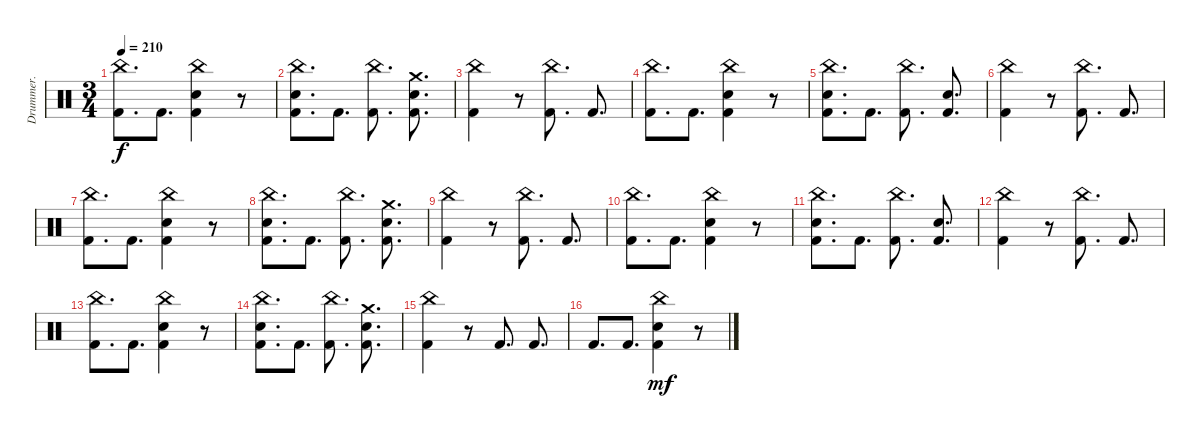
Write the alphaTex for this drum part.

\track ("Drummer." "Drummer.") {instrument percussion}
\staff {score}
\articulation defaults
\ts (3 4)
\tempo 210
\clef neutral
\ks c
("China (hit)" "Kick (hit) 2").8{d dy f} "Kick (hit) 2".8{d} ("China (hit)" "Snare (hit) 2" "Kick (hit) 2").4 r.8 |
("Snare (hit)" "China (hit)" "Kick (hit) 2").8{d} "Kick (hit) 2".8{d} ("China (hit)" "Kick (hit) 2").8{d} ("Crash medium (hit)" "Snare (hit) 2" "Kick (hit) 2").8{d} |
("China (hit)" "Kick (hit) 2").4 r.8 ("China (hit)" "Kick (hit) 2").8{d} "Kick (hit) 2".8{d} |
("China (hit)" "Kick (hit) 2").8{d} "Kick (hit) 2".8{d} ("China (hit)" "Snare (hit) 2" "Kick (hit) 2").4 r.8 |
("Snare (hit)" "China (hit)" "Kick (hit) 2").8{d} "Kick (hit) 2".8{d} ("China (hit)" "Kick (hit) 2").8{d} ("Snare (hit) 2" "Kick (hit) 2").8{d} |
("China (hit)" "Kick (hit) 2").4 r.8 ("China (hit)" "Kick (hit) 2").8{d} "Kick (hit) 2".8{d} |
("China (hit)" "Kick (hit) 2").8{d} "Kick (hit) 2".8{d} ("China (hit)" "Snare (hit) 2" "Kick (hit) 2").4 r.8 |
("Snare (hit)" "China (hit)" "Kick (hit) 2").8{d} "Kick (hit) 2".8{d} ("China (hit)" "Kick (hit) 2").8{d} ("Crash medium (hit)" "Snare (hit) 2" "Kick (hit) 2").8{d} |
("China (hit)" "Kick (hit) 2").4 r.8 ("China (hit)" "Kick (hit) 2").8{d} "Kick (hit) 2".8{d} |
("China (hit)" "Kick (hit) 2").8{d} "Kick (hit) 2".8{d} ("China (hit)" "Snare (hit) 2" "Kick (hit) 2").4 r.8 |
("Snare (hit)" "China (hit)" "Kick (hit) 2").8{d} "Kick (hit) 2".8{d} ("China (hit)" "Kick (hit) 2").8{d} ("Snare (hit) 2" "Kick (hit) 2").8{d} |
("China (hit)" "Kick (hit) 2").4 r.8 ("China (hit)" "Kick (hit) 2").8{d} "Kick (hit) 2".8{d} |
("China (hit)" "Kick (hit) 2").8{d} "Kick (hit) 2".8{d} ("China (hit)" "Snare (hit) 2" "Kick (hit) 2").4 r.8 |
("Snare (hit)" "China (hit)" "Kick (hit) 2").8{d} "Kick (hit) 2".8{d} ("China (hit)" "Kick (hit) 2").8{d} ("Crash medium (hit)" "Snare (hit) 2" "Kick (hit) 2").8{d} |
("China (hit)" "Kick (hit) 2").4 r.8 "Kick (hit) 2".8{d} "Kick (hit) 2".8{d} |
"Kick (hit) 2".8{d} "Kick (hit) 2".8{d} ("China (hit)" "Snare (hit) 2" "Kick (hit) 2").4{dy mf} r.8
